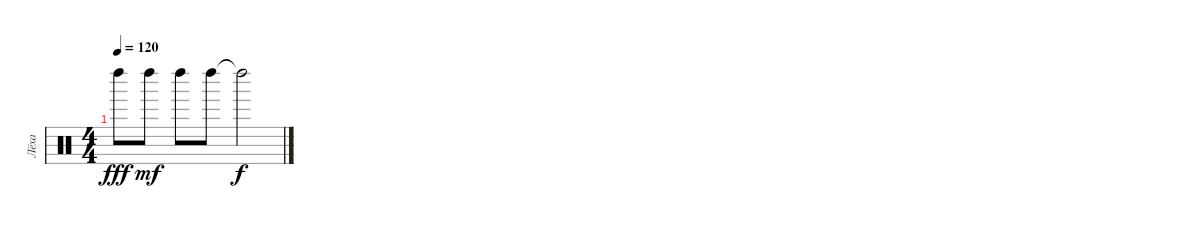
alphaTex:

\track ("Лёха" "Лёха") {instrument percussion}
\staff {score}
\articulation defaults
\ts (4 4)
\tempo 120
\clef neutral
\ks c "Left Maraca (hit)".8{dy fff} "Left Maraca (hit)".8{dy mf} "Left Maraca (hit)".8 "Left Maraca (hit)".8 "Left Maraca (hit)"{t}.2{dy f}
